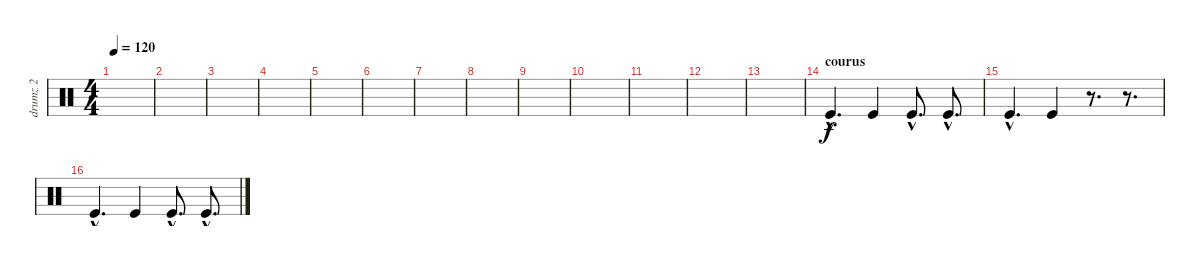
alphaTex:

\track ("drumz 2" "drumz 2") {instrument percussion}
\staff {score}
\articulation defaults
\ts (4 4)
\tempo 120
\clef neutral
\ks c
|
|
|
|
|
|
|
|
|
|
|
|
|
\section ("" "courus")
"Kick (hit)"{hac}.4{d} "Kick (hit)".4 "Kick (hit)"{hac}.8{d} "Kick (hit)"{hac}.8{d} |
"Kick (hit)"{hac}.4{d} "Kick (hit)".4 r.8{d} r.8{d} |
"Kick (hit)"{hac}.4{d} "Kick (hit)".4 "Kick (hit)"{hac}.8{d} "Kick (hit)"{hac}.8{d}
